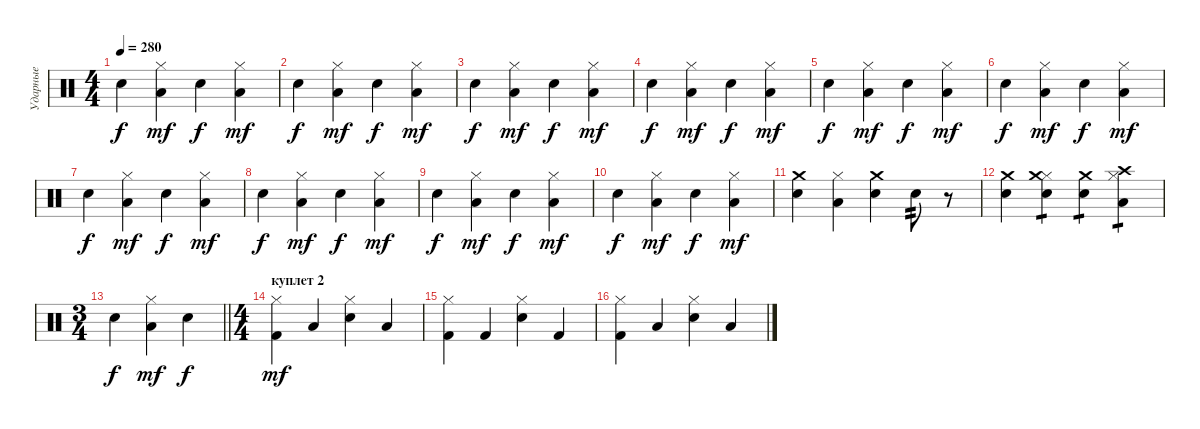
\track ("Ударные" "Ударные") {instrument percussion}
\staff {score}
\articulation defaults
\ts (4 4)
\tempo 280
\clef neutral
\ks c "Snare (hit) 2".4{dy f}
("Low Tom (hit)" "Hi-Hat (closed)").4{dy mf} "Snare (hit) 2".4{dy f} ("Low Tom (hit)" "Hi-Hat (closed)").4{dy mf} |
"Snare (hit) 2".4{dy f} ("Low Tom (hit)" "Hi-Hat (closed)").4{dy mf} "Snare (hit) 2".4{dy f} ("Low Tom (hit)" "Hi-Hat (closed)").4{dy mf} |
"Snare (hit) 2".4{dy f} ("Low Tom (hit)" "Hi-Hat (closed)").4{dy mf} "Snare (hit) 2".4{dy f} ("Low Tom (hit)" "Hi-Hat (closed)").4{dy mf} |
"Snare (hit) 2".4{dy f} ("Low Tom (hit)" "Hi-Hat (closed)").4{dy mf} "Snare (hit) 2".4{dy f} ("Low Tom (hit)" "Hi-Hat (closed)").4{dy mf} |
"Snare (hit) 2".4{dy f} ("Low Tom (hit)" "Hi-Hat (closed)").4{dy mf} "Snare (hit) 2".4{dy f} ("Low Tom (hit)" "Hi-Hat (closed)").4{dy mf} |
"Snare (hit) 2".4{dy f} ("Low Tom (hit)" "Hi-Hat (closed)").4{dy mf} "Snare (hit) 2".4{dy f} ("Low Tom (hit)" "Hi-Hat (closed)").4{dy mf} |
"Snare (hit) 2".4{dy f} ("Low Tom (hit)" "Hi-Hat (closed)").4{dy mf} "Snare (hit) 2".4{dy f} ("Low Tom (hit)" "Hi-Hat (closed)").4{dy mf} |
"Snare (hit) 2".4{dy f} ("Low Tom (hit)" "Hi-Hat (closed)").4{dy mf} "Snare (hit) 2".4{dy f} ("Low Tom (hit)" "Hi-Hat (closed)").4{dy mf} |
"Snare (hit) 2".4{dy f} ("Low Tom (hit)" "Hi-Hat (closed)").4{dy mf} "Snare (hit) 2".4{dy f} ("Low Tom (hit)" "Hi-Hat (closed)").4{dy mf} |
"Snare (hit) 2".4{dy f} ("Low Tom (hit)" "Hi-Hat (closed)").4{dy mf} "Snare (hit) 2".4{dy f} ("Low Tom (hit)" "Hi-Hat (closed)").4{dy mf} |
("Snare (hit) 2" "Crash medium (hit)").4 ("Low Tom (hit)" "Hi-Hat (closed)").4 ("Snare (hit) 2" "Crash medium (hit)").4 "Snare (hit) 2".8{tp 2} r.8 |
("Snare (hit) 2" "Crash medium (hit)").4 ("Snare (hit) 2" "Hi-Hat (closed)" "Crash medium (hit)").4{tp 1} ("Snare (hit) 2" "Crash medium (hit)").4{tp 1} ("Low Tom (hit)" "Hi-Hat (closed)" "Crash high (hit)").4{tp 1} |
\ts (3 4)
\barLineRight lightlight "Snare (hit) 2".4{dy f}
("Low Tom (hit)" "Hi-Hat (closed)").4{dy mf} "Snare (hit) 2".4{dy f} |
\ts (4 4)
\section ("" "куплет 2")
("Kick (hit) 2" "Hi-Hat (closed)").4{dy mf} "Low Floor Tom (hit)".4 ("Snare (hit) 2" "Hi-Hat (closed)").4 "Low Floor Tom (hit)".4 |
("Kick (hit) 2" "Hi-Hat (closed)").4 "Kick (hit) 2".4 ("Snare (hit) 2" "Hi-Hat (closed)").4 "Kick (hit) 2".4 |
("Kick (hit) 2" "Hi-Hat (closed)").4 "Low Floor Tom (hit)".4 ("Snare (hit) 2" "Hi-Hat (closed)").4 "Low Floor Tom (hit)".4
